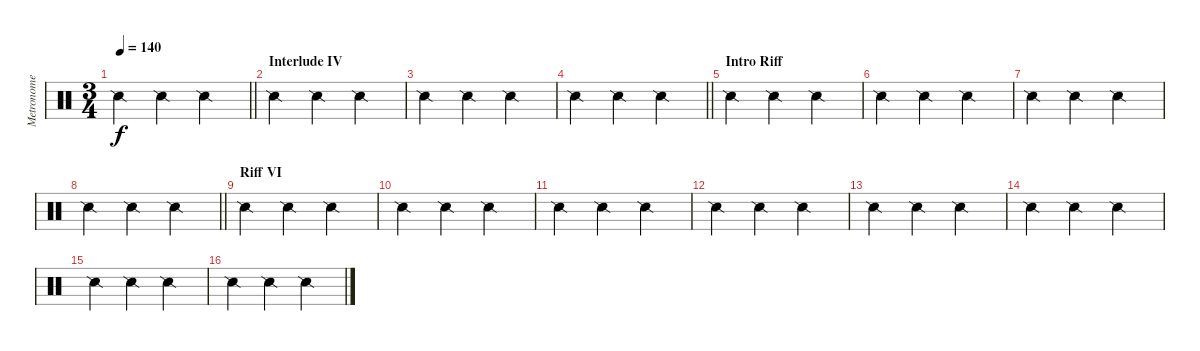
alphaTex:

\track ("Metronome" "Metronome") {instrument percussion}
\staff {score}
\articulation defaults
\ts (3 4)
\tempo 140
\clef neutral
\barLineRight lightlight
\ks c "Snare (side stick) 2".4{dy f} "Snare (side stick) 2".4 "Snare (side stick) 2".4
|
\section ("" "Interlude IV")
"Snare (side stick) 2".4 "Snare (side stick) 2".4 "Snare (side stick) 2".4 |
"Snare (side stick) 2".4 "Snare (side stick) 2".4 "Snare (side stick) 2".4 |
\barLineRight lightlight "Snare (side stick) 2".4 "Snare (side stick) 2".4 "Snare (side stick) 2".4
|
\section ("" "Intro Riff")
"Snare (side stick) 2".4 "Snare (side stick) 2".4 "Snare (side stick) 2".4 |
"Snare (side stick) 2".4 "Snare (side stick) 2".4 "Snare (side stick) 2".4 |
"Snare (side stick) 2".4 "Snare (side stick) 2".4 "Snare (side stick) 2".4 |
\barLineRight lightlight "Snare (side stick) 2".4 "Snare (side stick) 2".4 "Snare (side stick) 2".4
|
\section ("" "Riff VI")
"Snare (side stick) 2".4 "Snare (side stick) 2".4 "Snare (side stick) 2".4 |
"Snare (side stick) 2".4 "Snare (side stick) 2".4 "Snare (side stick) 2".4 |
"Snare (side stick) 2".4 "Snare (side stick) 2".4 "Snare (side stick) 2".4 |
"Snare (side stick) 2".4 "Snare (side stick) 2".4 "Snare (side stick) 2".4 |
"Snare (side stick) 2".4 "Snare (side stick) 2".4 "Snare (side stick) 2".4 |
"Snare (side stick) 2".4 "Snare (side stick) 2".4 "Snare (side stick) 2".4 |
"Snare (side stick) 2".4 "Snare (side stick) 2".4 "Snare (side stick) 2".4 |
"Snare (side stick) 2".4 "Snare (side stick) 2".4 "Snare (side stick) 2".4
